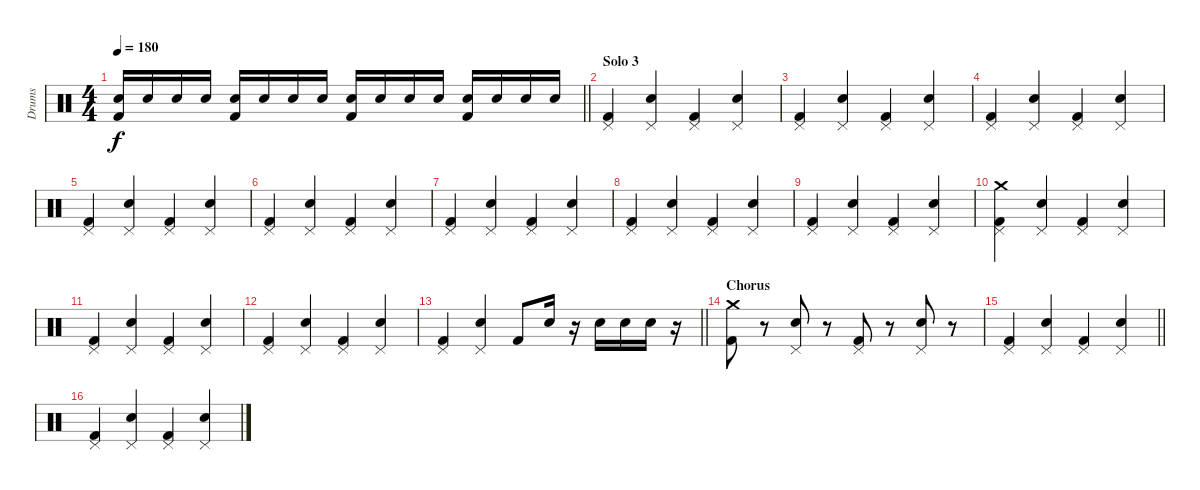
\track ("Drums" "Drums") {instrument percussion}
\staff {score}
\articulation defaults
\ts (4 4)
\tempo 180
\clef neutral
\barLineRight lightlight
\ks c
("Snare (hit) 2" "Kick (hit) 2").16{dy f} "Snare (hit) 2".16 "Snare (hit) 2".16 "Snare (hit) 2".16 ("Snare (hit) 2" "Kick (hit) 2").16 "Snare (hit) 2".16 "Snare (hit) 2".16 "Snare (hit) 2".16 ("Snare (hit) 2" "Kick (hit) 2").16 "Snare (hit) 2".16 "Snare (hit) 2".16 "Snare (hit) 2".16 ("Snare (hit) 2" "Kick (hit) 2").16 "Snare (hit) 2".16 "Snare (hit) 2".16 "Snare (hit) 2".16 |
\section ("" "Solo 3")
("Pedal Hi-Hat (hit)" "Kick (hit) 2").4 ("Pedal Hi-Hat (hit)" "Snare (hit) 2").4 ("Pedal Hi-Hat (hit)" "Kick (hit) 2").4 ("Pedal Hi-Hat (hit)" "Snare (hit) 2").4 |
("Pedal Hi-Hat (hit)" "Kick (hit) 2").4 ("Pedal Hi-Hat (hit)" "Snare (hit) 2").4 ("Pedal Hi-Hat (hit)" "Kick (hit) 2").4 ("Pedal Hi-Hat (hit)" "Snare (hit) 2").4 |
("Pedal Hi-Hat (hit)" "Kick (hit) 2").4 ("Pedal Hi-Hat (hit)" "Snare (hit) 2").4 ("Pedal Hi-Hat (hit)" "Kick (hit) 2").4 ("Pedal Hi-Hat (hit)" "Snare (hit) 2").4 |
("Pedal Hi-Hat (hit)" "Kick (hit) 2").4 ("Pedal Hi-Hat (hit)" "Snare (hit) 2").4 ("Pedal Hi-Hat (hit)" "Kick (hit) 2").4 ("Pedal Hi-Hat (hit)" "Snare (hit) 2").4 |
("Pedal Hi-Hat (hit)" "Kick (hit) 2").4 ("Pedal Hi-Hat (hit)" "Snare (hit) 2").4 ("Pedal Hi-Hat (hit)" "Kick (hit) 2").4 ("Pedal Hi-Hat (hit)" "Snare (hit) 2").4 |
("Pedal Hi-Hat (hit)" "Kick (hit) 2").4 ("Pedal Hi-Hat (hit)" "Snare (hit) 2").4 ("Pedal Hi-Hat (hit)" "Kick (hit) 2").4 ("Pedal Hi-Hat (hit)" "Snare (hit) 2").4 |
("Pedal Hi-Hat (hit)" "Kick (hit) 2").4 ("Pedal Hi-Hat (hit)" "Snare (hit) 2").4 ("Pedal Hi-Hat (hit)" "Kick (hit) 2").4 ("Pedal Hi-Hat (hit)" "Snare (hit) 2").4 |
("Pedal Hi-Hat (hit)" "Kick (hit) 2").4 ("Pedal Hi-Hat (hit)" "Snare (hit) 2").4 ("Pedal Hi-Hat (hit)" "Kick (hit) 2").4 ("Pedal Hi-Hat (hit)" "Snare (hit) 2").4 |
("Pedal Hi-Hat (hit)" "Crash medium (hit)" "Kick (hit) 2").4 ("Pedal Hi-Hat (hit)" "Snare (hit) 2").4 ("Pedal Hi-Hat (hit)" "Kick (hit) 2").4 ("Pedal Hi-Hat (hit)" "Snare (hit) 2").4 |
("Pedal Hi-Hat (hit)" "Kick (hit) 2").4 ("Pedal Hi-Hat (hit)" "Snare (hit) 2").4 ("Pedal Hi-Hat (hit)" "Kick (hit) 2").4 ("Pedal Hi-Hat (hit)" "Snare (hit) 2").4 |
("Pedal Hi-Hat (hit)" "Kick (hit) 2").4 ("Pedal Hi-Hat (hit)" "Snare (hit) 2").4 ("Pedal Hi-Hat (hit)" "Kick (hit) 2").4 ("Pedal Hi-Hat (hit)" "Snare (hit) 2").4 |
\barLineRight lightlight
("Pedal Hi-Hat (hit)" "Kick (hit) 2").4 ("Pedal Hi-Hat (hit)" "Snare (hit) 2").4 "Kick (hit) 2".8 "Snare (hit) 2".16 r.16 "Snare (hit) 2".16 "Snare (hit) 2".16 "Snare (hit) 2".16 r.16 |
\section ("" "Chorus")
("Crash medium (hit)" "Kick (hit) 2").8 r.8 ("Pedal Hi-Hat (hit)" "Snare (hit) 2").8 r.8 ("Pedal Hi-Hat (hit)" "Kick (hit) 2").8 r.8 ("Pedal Hi-Hat (hit)" "Snare (hit) 2").8 r.8 |
\barLineRight lightlight
("Pedal Hi-Hat (hit)" "Kick (hit) 2").4 ("Pedal Hi-Hat (hit)" "Snare (hit) 2").4 ("Pedal Hi-Hat (hit)" "Kick (hit) 2").4 ("Pedal Hi-Hat (hit)" "Snare (hit) 2").4 |
("Pedal Hi-Hat (hit)" "Kick (hit) 2").4 ("Pedal Hi-Hat (hit)" "Snare (hit) 2").4 ("Pedal Hi-Hat (hit)" "Kick (hit) 2").4 ("Pedal Hi-Hat (hit)" "Snare (hit) 2").4
